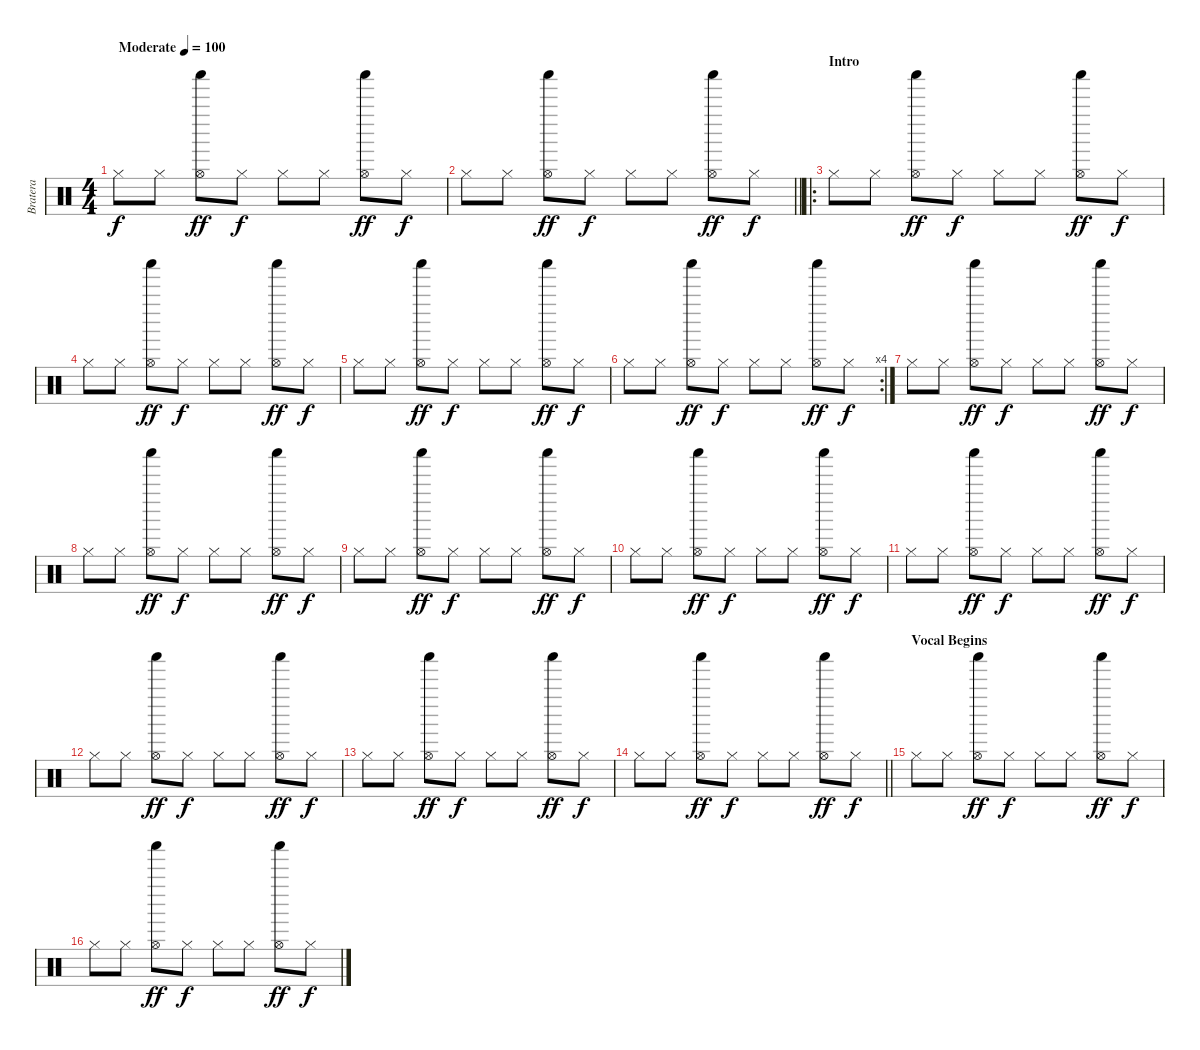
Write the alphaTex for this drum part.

\track ("Bratera" "Bratera") {instrument percussion}
\staff {score}
\articulation defaults
\ts (4 4)
\tempo (100 "Moderate")
\clef neutral
\ks c "Hi-Hat (closed)".8{dy f} "Hi-Hat (closed)".8
("Hi-Hat (open)" "Shaker (hit)").8{dy ff} "Hi-Hat (closed)".8{dy f} "Hi-Hat (closed)".8 "Hi-Hat (closed)".8 ("Hi-Hat (open)" "Shaker (hit)").8{dy ff} "Hi-Hat (closed)".8{dy f} |
\barLineRight lightlight "Hi-Hat (closed)".8 "Hi-Hat (closed)".8
("Hi-Hat (open)" "Shaker (hit)").8{dy ff} "Hi-Hat (closed)".8{dy f} "Hi-Hat (closed)".8 "Hi-Hat (closed)".8 ("Hi-Hat (open)" "Shaker (hit)").8{dy ff} "Hi-Hat (closed)".8{dy f} |
\ro
\section ("" "Intro")
"Hi-Hat (closed)".8 "Hi-Hat (closed)".8 ("Hi-Hat (open)" "Shaker (hit)").8{dy ff} "Hi-Hat (closed)".8{dy f} "Hi-Hat (closed)".8 "Hi-Hat (closed)".8 ("Hi-Hat (open)" "Shaker (hit)").8{dy ff} "Hi-Hat (closed)".8{dy f} |
"Hi-Hat (closed)".8 "Hi-Hat (closed)".8 ("Hi-Hat (open)" "Shaker (hit)").8{dy ff} "Hi-Hat (closed)".8{dy f} "Hi-Hat (closed)".8 "Hi-Hat (closed)".8 ("Hi-Hat (open)" "Shaker (hit)").8{dy ff} "Hi-Hat (closed)".8{dy f} |
"Hi-Hat (closed)".8 "Hi-Hat (closed)".8 ("Hi-Hat (open)" "Shaker (hit)").8{dy ff} "Hi-Hat (closed)".8{dy f} "Hi-Hat (closed)".8 "Hi-Hat (closed)".8 ("Hi-Hat (open)" "Shaker (hit)").8{dy ff} "Hi-Hat (closed)".8{dy f} |
\rc 4 "Hi-Hat (closed)".8 "Hi-Hat (closed)".8
("Hi-Hat (open)" "Shaker (hit)").8{dy ff} "Hi-Hat (closed)".8{dy f} "Hi-Hat (closed)".8 "Hi-Hat (closed)".8 ("Hi-Hat (open)" "Shaker (hit)").8{dy ff} "Hi-Hat (closed)".8{dy f} |
"Hi-Hat (closed)".8 "Hi-Hat (closed)".8 ("Hi-Hat (open)" "Shaker (hit)").8{dy ff} "Hi-Hat (closed)".8{dy f} "Hi-Hat (closed)".8 "Hi-Hat (closed)".8 ("Hi-Hat (open)" "Shaker (hit)").8{dy ff} "Hi-Hat (closed)".8{dy f} |
"Hi-Hat (closed)".8 "Hi-Hat (closed)".8 ("Hi-Hat (open)" "Shaker (hit)").8{dy ff} "Hi-Hat (closed)".8{dy f} "Hi-Hat (closed)".8 "Hi-Hat (closed)".8 ("Hi-Hat (open)" "Shaker (hit)").8{dy ff} "Hi-Hat (closed)".8{dy f} |
"Hi-Hat (closed)".8 "Hi-Hat (closed)".8 ("Hi-Hat (open)" "Shaker (hit)").8{dy ff} "Hi-Hat (closed)".8{dy f} "Hi-Hat (closed)".8 "Hi-Hat (closed)".8 ("Hi-Hat (open)" "Shaker (hit)").8{dy ff} "Hi-Hat (closed)".8{dy f} |
"Hi-Hat (closed)".8 "Hi-Hat (closed)".8 ("Hi-Hat (open)" "Shaker (hit)").8{dy ff} "Hi-Hat (closed)".8{dy f} "Hi-Hat (closed)".8 "Hi-Hat (closed)".8 ("Hi-Hat (open)" "Shaker (hit)").8{dy ff} "Hi-Hat (closed)".8{dy f} |
"Hi-Hat (closed)".8 "Hi-Hat (closed)".8 ("Hi-Hat (open)" "Shaker (hit)").8{dy ff} "Hi-Hat (closed)".8{dy f} "Hi-Hat (closed)".8 "Hi-Hat (closed)".8 ("Hi-Hat (open)" "Shaker (hit)").8{dy ff} "Hi-Hat (closed)".8{dy f} |
"Hi-Hat (closed)".8 "Hi-Hat (closed)".8 ("Hi-Hat (open)" "Shaker (hit)").8{dy ff} "Hi-Hat (closed)".8{dy f} "Hi-Hat (closed)".8 "Hi-Hat (closed)".8 ("Hi-Hat (open)" "Shaker (hit)").8{dy ff} "Hi-Hat (closed)".8{dy f} |
"Hi-Hat (closed)".8 "Hi-Hat (closed)".8 ("Hi-Hat (open)" "Shaker (hit)").8{dy ff} "Hi-Hat (closed)".8{dy f} "Hi-Hat (closed)".8 "Hi-Hat (closed)".8 ("Hi-Hat (open)" "Shaker (hit)").8{dy ff} "Hi-Hat (closed)".8{dy f} |
\barLineRight lightlight "Hi-Hat (closed)".8 "Hi-Hat (closed)".8
("Hi-Hat (open)" "Shaker (hit)").8{dy ff} "Hi-Hat (closed)".8{dy f} "Hi-Hat (closed)".8 "Hi-Hat (closed)".8 ("Hi-Hat (open)" "Shaker (hit)").8{dy ff} "Hi-Hat (closed)".8{dy f} |
\section ("" "Vocal Begins")
"Hi-Hat (closed)".8 "Hi-Hat (closed)".8 ("Hi-Hat (open)" "Shaker (hit)").8{dy ff} "Hi-Hat (closed)".8{dy f} "Hi-Hat (closed)".8 "Hi-Hat (closed)".8 ("Hi-Hat (open)" "Shaker (hit)").8{dy ff} "Hi-Hat (closed)".8{dy f} |
"Hi-Hat (closed)".8 "Hi-Hat (closed)".8 ("Hi-Hat (open)" "Shaker (hit)").8{dy ff} "Hi-Hat (closed)".8{dy f} "Hi-Hat (closed)".8 "Hi-Hat (closed)".8 ("Hi-Hat (open)" "Shaker (hit)").8{dy ff} "Hi-Hat (closed)".8{dy f}
